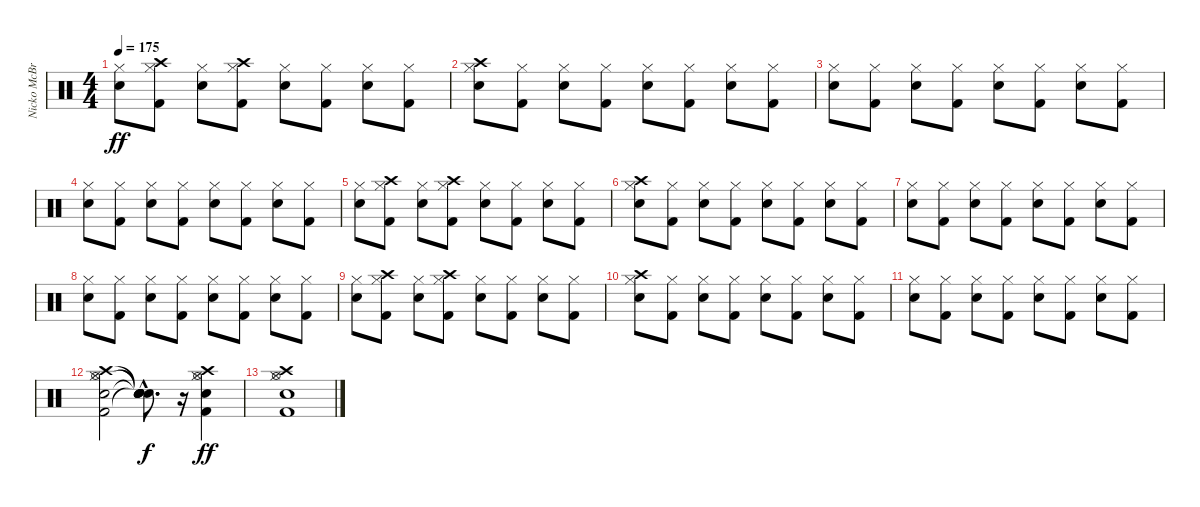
\track ("Nicko McBrain" "Nicko McBr") {instrument percussion}
\staff {score}
\articulation defaults
\ts (4 4)
\tempo 175
\clef neutral
\ks c
("Snare (hit) 2" "Hi-Hat (closed)").8{dy ff} ("Kick (hit) 2" "Hi-Hat (closed)" "Crash high (hit)").8 ("Snare (hit) 2" "Hi-Hat (closed)").8 ("Kick (hit) 2" "Hi-Hat (closed)" "Crash high (hit)").8 ("Snare (hit) 2" "Hi-Hat (closed)").8 ("Kick (hit) 2" "Hi-Hat (closed)").8 ("Snare (hit) 2" "Hi-Hat (closed)").8 ("Kick (hit) 2" "Hi-Hat (closed)").8 |
("Snare (hit) 2" "Hi-Hat (closed)" "Crash high (hit)").8 ("Kick (hit) 2" "Hi-Hat (closed)").8 ("Snare (hit) 2" "Hi-Hat (closed)").8 ("Kick (hit) 2" "Hi-Hat (closed)").8 ("Snare (hit) 2" "Hi-Hat (closed)").8 ("Kick (hit) 2" "Hi-Hat (closed)").8 ("Snare (hit) 2" "Hi-Hat (closed)").8 ("Kick (hit) 2" "Hi-Hat (closed)").8 |
("Snare (hit) 2" "Hi-Hat (closed)").8 ("Kick (hit) 2" "Hi-Hat (closed)").8 ("Snare (hit) 2" "Hi-Hat (closed)").8 ("Kick (hit) 2" "Hi-Hat (closed)").8 ("Snare (hit) 2" "Hi-Hat (closed)").8 ("Kick (hit) 2" "Hi-Hat (closed)").8 ("Snare (hit) 2" "Hi-Hat (closed)").8 ("Kick (hit) 2" "Hi-Hat (closed)").8 |
("Snare (hit) 2" "Hi-Hat (closed)").8 ("Kick (hit) 2" "Hi-Hat (closed)").8 ("Snare (hit) 2" "Hi-Hat (closed)").8 ("Kick (hit) 2" "Hi-Hat (closed)").8 ("Snare (hit) 2" "Hi-Hat (closed)").8 ("Kick (hit) 2" "Hi-Hat (closed)").8 ("Snare (hit) 2" "Hi-Hat (closed)").8 ("Kick (hit) 2" "Hi-Hat (closed)").8 |
("Snare (hit) 2" "Hi-Hat (closed)").8 ("Kick (hit) 2" "Hi-Hat (closed)" "Crash high (hit)").8 ("Snare (hit) 2" "Hi-Hat (closed)").8 ("Kick (hit) 2" "Hi-Hat (closed)" "Crash high (hit)").8 ("Snare (hit) 2" "Hi-Hat (closed)").8 ("Kick (hit) 2" "Hi-Hat (closed)").8 ("Snare (hit) 2" "Hi-Hat (closed)").8 ("Kick (hit) 2" "Hi-Hat (closed)").8 |
("Snare (hit) 2" "Hi-Hat (closed)" "Crash high (hit)").8 ("Kick (hit) 2" "Hi-Hat (closed)").8 ("Snare (hit) 2" "Hi-Hat (closed)").8 ("Kick (hit) 2" "Hi-Hat (closed)").8 ("Snare (hit) 2" "Hi-Hat (closed)").8 ("Kick (hit) 2" "Hi-Hat (closed)").8 ("Snare (hit) 2" "Hi-Hat (closed)").8 ("Kick (hit) 2" "Hi-Hat (closed)").8 |
("Snare (hit) 2" "Hi-Hat (closed)").8 ("Kick (hit) 2" "Hi-Hat (closed)").8 ("Snare (hit) 2" "Hi-Hat (closed)").8 ("Kick (hit) 2" "Hi-Hat (closed)").8 ("Snare (hit) 2" "Hi-Hat (closed)").8 ("Kick (hit) 2" "Hi-Hat (closed)").8 ("Snare (hit) 2" "Hi-Hat (closed)").8 ("Kick (hit) 2" "Hi-Hat (closed)").8 |
("Snare (hit) 2" "Hi-Hat (closed)").8 ("Kick (hit) 2" "Hi-Hat (closed)").8 ("Snare (hit) 2" "Hi-Hat (closed)").8 ("Kick (hit) 2" "Hi-Hat (closed)").8 ("Snare (hit) 2" "Hi-Hat (closed)").8 ("Kick (hit) 2" "Hi-Hat (closed)").8 ("Snare (hit) 2" "Hi-Hat (closed)").8 ("Kick (hit) 2" "Hi-Hat (closed)").8 |
("Snare (hit) 2" "Hi-Hat (closed)").8 ("Kick (hit) 2" "Hi-Hat (closed)" "Crash high (hit)").8 ("Snare (hit) 2" "Hi-Hat (closed)").8 ("Kick (hit) 2" "Hi-Hat (closed)" "Crash high (hit)").8 ("Snare (hit) 2" "Hi-Hat (closed)").8 ("Kick (hit) 2" "Hi-Hat (closed)").8 ("Snare (hit) 2" "Hi-Hat (closed)").8 ("Kick (hit) 2" "Hi-Hat (closed)").8 |
("Snare (hit) 2" "Hi-Hat (closed)" "Crash high (hit)").8 ("Kick (hit) 2" "Hi-Hat (closed)").8 ("Snare (hit) 2" "Hi-Hat (closed)").8 ("Kick (hit) 2" "Hi-Hat (closed)").8 ("Snare (hit) 2" "Hi-Hat (closed)").8 ("Kick (hit) 2" "Hi-Hat (closed)").8 ("Snare (hit) 2" "Hi-Hat (closed)").8 ("Kick (hit) 2" "Hi-Hat (closed)").8 |
("Snare (hit) 2" "Hi-Hat (closed)").8 ("Kick (hit) 2" "Hi-Hat (closed)").8 ("Snare (hit) 2" "Hi-Hat (closed)").8 ("Kick (hit) 2" "Hi-Hat (closed)").8 ("Snare (hit) 2" "Hi-Hat (closed)").8 ("Kick (hit) 2" "Hi-Hat (closed)").8 ("Snare (hit) 2" "Hi-Hat (closed)").8 ("Kick (hit) 2" "Hi-Hat (closed)").8 |
("Kick (hit) 2" "Snare (hit) 2" "Hi-Hat (closed)" "Hi-Hat (open)" "Crash high (hit)").2 ("Snare (hit)"{hac t} "Snare (hit)"{hac t} "Snare (hit)"{hac t} "Snare (hit)"{hac t} "Snare (hit)"{hac t}).8{d dy f} r.16 ("Kick (hit) 2" "Snare (hit) 2" "Hi-Hat (closed)" "Hi-Hat (open)" "Crash high (hit)").4{dy ff} |
("Kick (hit) 2" "Snare (hit) 2" "Hi-Hat (closed)" "Hi-Hat (open)" "Crash high (hit)").1
